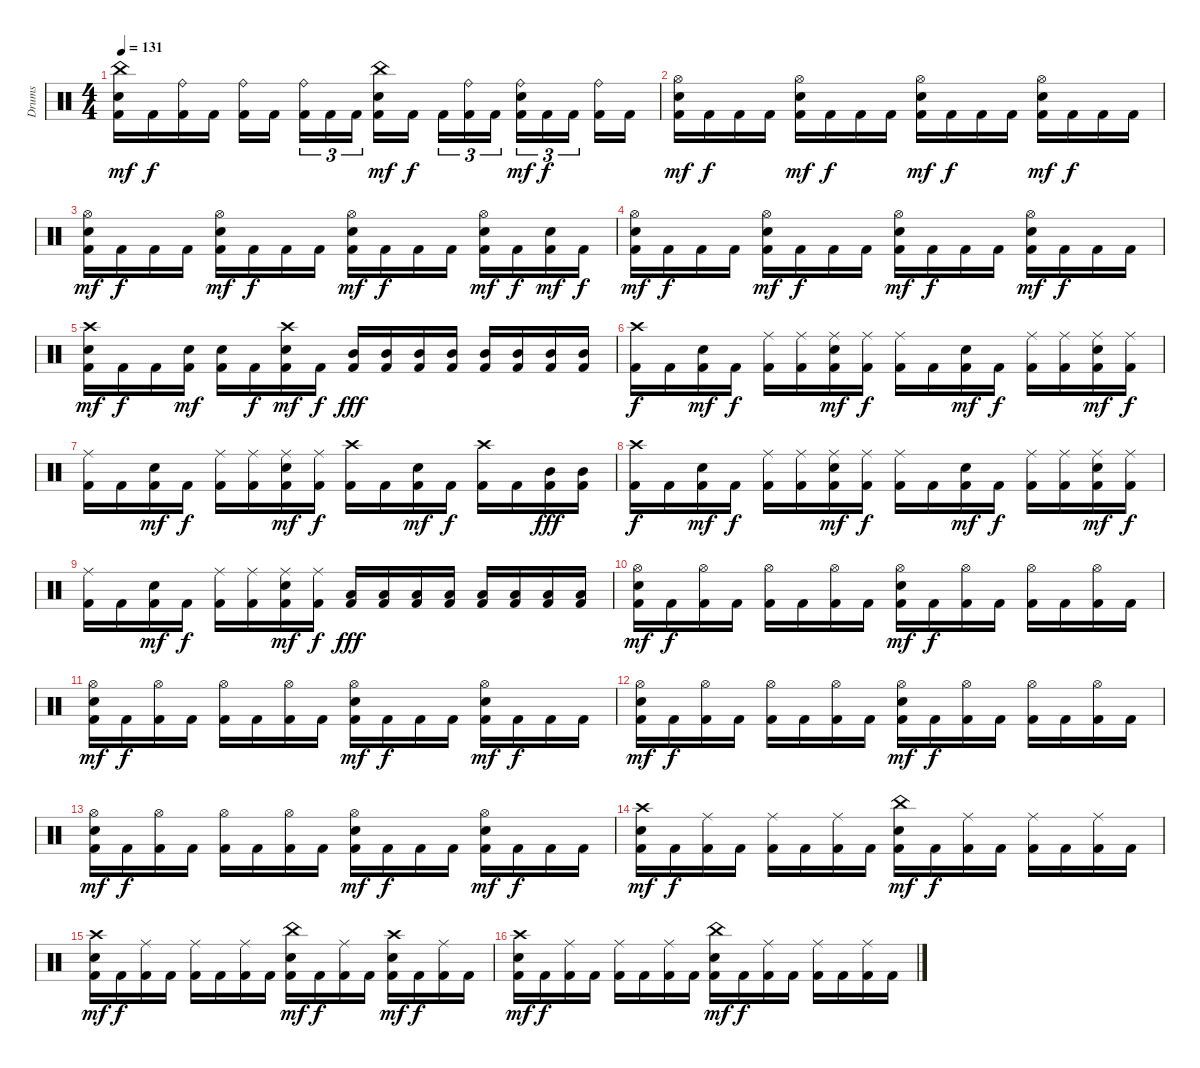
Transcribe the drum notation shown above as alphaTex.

\track ("Drums" "Drums") {instrument percussion}
\staff {score}
\articulation defaults
\ts (4 4)
\tempo 131
\clef neutral
\ks c
("China (hit)" "Snare (hit) 2" "Kick (hit) 2").16{dy mf} "Kick (hit) 2".16{dy f} ("Ride (bell)" "Kick (hit) 2").16 "Kick (hit) 2".16 ("Ride (bell)" "Kick (hit) 2").16 "Kick (hit) 2".16 ("Ride (bell)" "Kick (hit) 2").16{tu (3 2)} "Kick (hit) 2".16{tu (3 2)} "Kick (hit) 2".16{tu (3 2)} ("China (hit)" "Snare (hit) 2" "Kick (hit) 2").16{dy mf} "Kick (hit) 2".16{dy f} "Kick (hit) 2".16{tu (3 2)} ("Ride (bell)" "Kick (hit) 2").16{tu (3 2)} "Kick (hit) 2".16{tu (3 2)} ("Ride (bell)" "Snare (hit) 2" "Kick (hit) 2").16{tu (3 2) dy mf} "Kick (hit) 2".16{tu (3 2) dy f} "Kick (hit) 2".16{tu (3 2)} ("Ride (bell)" "Kick (hit) 2").16 "Kick (hit) 2".16 |
\section ("" "")
("Hi-Hat (open)" "Snare (hit) 2" "Kick (hit) 2").16{dy mf} "Kick (hit) 2".16{dy f} "Kick (hit) 2".16 "Kick (hit) 2".16 ("Hi-Hat (open)" "Snare (hit) 2" "Kick (hit) 2").16{dy mf} "Kick (hit) 2".16{dy f} "Kick (hit) 2".16 "Kick (hit) 2".16 ("Hi-Hat (open)" "Snare (hit) 2" "Kick (hit) 2").16{dy mf} "Kick (hit) 2".16{dy f} "Kick (hit) 2".16 "Kick (hit) 2".16 ("Hi-Hat (open)" "Snare (hit) 2" "Kick (hit) 2").16{dy mf} "Kick (hit) 2".16{dy f} "Kick (hit) 2".16 "Kick (hit) 2".16 |
("Hi-Hat (open)" "Snare (hit) 2" "Kick (hit) 2").16{dy mf} "Kick (hit) 2".16{dy f} "Kick (hit) 2".16 "Kick (hit) 2".16 ("Hi-Hat (open)" "Snare (hit) 2" "Kick (hit) 2").16{dy mf} "Kick (hit) 2".16{dy f} "Kick (hit) 2".16 "Kick (hit) 2".16 ("Hi-Hat (open)" "Snare (hit) 2" "Kick (hit) 2").16{dy mf} "Kick (hit) 2".16{dy f} "Kick (hit) 2".16 "Kick (hit) 2".16 ("Hi-Hat (open)" "Snare (hit) 2" "Kick (hit) 2").16{dy mf} "Kick (hit) 2".16{dy f} ("Snare (hit) 2" "Kick (hit) 2").16{dy mf} "Kick (hit) 2".16{dy f} |
("Hi-Hat (open)" "Snare (hit) 2" "Kick (hit) 2").16{dy mf} "Kick (hit) 2".16{dy f} "Kick (hit) 2".16 "Kick (hit) 2".16 ("Hi-Hat (open)" "Snare (hit) 2" "Kick (hit) 2").16{dy mf} "Kick (hit) 2".16{dy f} "Kick (hit) 2".16 "Kick (hit) 2".16 ("Hi-Hat (open)" "Snare (hit) 2" "Kick (hit) 2").16{dy mf} "Kick (hit) 2".16{dy f} "Kick (hit) 2".16 "Kick (hit) 2".16 ("Hi-Hat (open)" "Snare (hit) 2" "Kick (hit) 2").16{dy mf} "Kick (hit) 2".16{dy f} "Kick (hit) 2".16 "Kick (hit) 2".16 |
("Crash high (hit)" "Snare (hit) 2" "Kick (hit) 2").16{dy mf} "Kick (hit) 2".16{dy f} "Kick (hit) 2".16 ("Snare (hit) 2" "Kick (hit) 2").16{dy mf} ("Snare (hit) 2" "Kick (hit) 2").16 "Kick (hit) 2".16{dy f} ("Crash high (hit)" "Snare (hit) 2" "Kick (hit) 2").16{dy mf} "Kick (hit) 2".16{dy f} ("Mid Tom (hit)" "Kick (hit) 2").16{dy fff} ("Mid Tom (hit)" "Kick (hit) 2").16 ("Mid Tom (hit)" "Kick (hit) 2").16 ("Mid Tom (hit)" "Kick (hit) 2").16 ("Mid Tom (hit)" "Kick (hit) 2").16 ("Mid Tom (hit)" "Kick (hit) 2").16 ("Mid Tom (hit)" "Kick (hit) 2").16 ("Mid Tom (hit)" "Kick (hit) 2").16 |
("Crash high (hit)" "Kick (hit) 2").16{dy f} "Kick (hit) 2".16 ("Snare (hit) 2" "Kick (hit) 2").16{dy mf} "Kick (hit) 2".16{dy f} ("Ride (middle)" "Kick (hit) 2").16 ("Ride (middle)" "Kick (hit) 2").16 ("Ride (middle)" "Snare (hit) 2" "Kick (hit) 2").16{dy mf} ("Ride (middle)" "Kick (hit) 2").16{dy f} ("Ride (middle)" "Kick (hit) 2").16 "Kick (hit) 2".16 ("Snare (hit) 2" "Kick (hit) 2").16{dy mf} "Kick (hit) 2".16{dy f} ("Ride (middle)" "Kick (hit) 2").16 ("Ride (middle)" "Kick (hit) 2").16 ("Ride (middle)" "Snare (hit) 2" "Kick (hit) 2").16{dy mf} ("Ride (middle)" "Kick (hit) 2").16{dy f} |
("Ride (middle)" "Kick (hit) 2").16 "Kick (hit) 2".16 ("Snare (hit) 2" "Kick (hit) 2").16{dy mf} "Kick (hit) 2".16{dy f} ("Ride (middle)" "Kick (hit) 2").16 ("Ride (middle)" "Kick (hit) 2").16 ("Ride (middle)" "Snare (hit) 2" "Kick (hit) 2").16{dy mf} ("Ride (middle)" "Kick (hit) 2").16{dy f} ("Crash high (hit)" "Kick (hit) 2").16 "Kick (hit) 2".16 ("Snare (hit) 2" "Kick (hit) 2").16{dy mf} "Kick (hit) 2".16{dy f} ("Crash high (hit)" "Kick (hit) 2").16 "Kick (hit) 2".16 ("Mid Tom (hit)" "Kick (hit) 2").16{dy fff} ("Mid Tom (hit)" "Kick (hit) 2").16 |
("Crash high (hit)" "Kick (hit) 2").16{dy f} "Kick (hit) 2".16 ("Snare (hit) 2" "Kick (hit) 2").16{dy mf} "Kick (hit) 2".16{dy f} ("Ride (middle)" "Kick (hit) 2").16 ("Ride (middle)" "Kick (hit) 2").16 ("Ride (middle)" "Snare (hit) 2" "Kick (hit) 2").16{dy mf} ("Ride (middle)" "Kick (hit) 2").16{dy f} ("Ride (middle)" "Kick (hit) 2").16 "Kick (hit) 2".16 ("Snare (hit) 2" "Kick (hit) 2").16{dy mf} "Kick (hit) 2".16{dy f} ("Ride (middle)" "Kick (hit) 2").16 ("Ride (middle)" "Kick (hit) 2").16 ("Ride (middle)" "Snare (hit) 2" "Kick (hit) 2").16{dy mf} ("Ride (middle)" "Kick (hit) 2").16{dy f} |
("Ride (middle)" "Kick (hit) 2").16 "Kick (hit) 2".16 ("Snare (hit) 2" "Kick (hit) 2").16{dy mf} "Kick (hit) 2".16{dy f} ("Ride (middle)" "Kick (hit) 2").16 ("Ride (middle)" "Kick (hit) 2").16 ("Ride (middle)" "Snare (hit) 2" "Kick (hit) 2").16{dy mf} ("Ride (middle)" "Kick (hit) 2").16{dy f} ("Low Tom (hit)" "Kick (hit) 2").16{dy fff} ("Low Tom (hit)" "Kick (hit) 2").16 ("Low Tom (hit)" "Kick (hit) 2").16 ("Low Tom (hit)" "Kick (hit) 2").16 ("Low Tom (hit)" "Kick (hit) 2").16 ("Low Tom (hit)" "Kick (hit) 2").16 ("Low Tom (hit)" "Kick (hit) 2").16 ("Low Tom (hit)" "Kick (hit) 2").16 |
\section ("" "")
("Hi-Hat (open)" "Snare (hit) 2" "Kick (hit) 2").16{dy mf} "Kick (hit) 2".16{dy f} ("Hi-Hat (open)" "Kick (hit) 2").16 "Kick (hit) 2".16 ("Hi-Hat (open)" "Kick (hit) 2").16 "Kick (hit) 2".16 ("Hi-Hat (open)" "Kick (hit) 2").16 "Kick (hit) 2".16 ("Hi-Hat (open)" "Snare (hit) 2" "Kick (hit) 2").16{dy mf} "Kick (hit) 2".16{dy f} ("Hi-Hat (open)" "Kick (hit) 2").16 "Kick (hit) 2".16 ("Hi-Hat (open)" "Kick (hit) 2").16 "Kick (hit) 2".16 ("Hi-Hat (open)" "Kick (hit) 2").16 "Kick (hit) 2".16 |
("Hi-Hat (open)" "Snare (hit) 2" "Kick (hit) 2").16{dy mf} "Kick (hit) 2".16{dy f} ("Hi-Hat (open)" "Kick (hit) 2").16 "Kick (hit) 2".16 ("Hi-Hat (open)" "Kick (hit) 2").16 "Kick (hit) 2".16 ("Hi-Hat (open)" "Kick (hit) 2").16 "Kick (hit) 2".16 ("Hi-Hat (open)" "Snare (hit) 2" "Kick (hit) 2").16{dy mf} "Kick (hit) 2".16{dy f} "Kick (hit) 2".16 "Kick (hit) 2".16 ("Hi-Hat (open)" "Snare (hit) 2" "Kick (hit) 2").16{dy mf} "Kick (hit) 2".16{dy f} "Kick (hit) 2".16 "Kick (hit) 2".16 |
("Hi-Hat (open)" "Snare (hit) 2" "Kick (hit) 2").16{dy mf} "Kick (hit) 2".16{dy f} ("Hi-Hat (open)" "Kick (hit) 2").16 "Kick (hit) 2".16 ("Hi-Hat (open)" "Kick (hit) 2").16 "Kick (hit) 2".16 ("Hi-Hat (open)" "Kick (hit) 2").16 "Kick (hit) 2".16 ("Hi-Hat (open)" "Snare (hit) 2" "Kick (hit) 2").16{dy mf} "Kick (hit) 2".16{dy f} ("Hi-Hat (open)" "Kick (hit) 2").16 "Kick (hit) 2".16 ("Hi-Hat (open)" "Kick (hit) 2").16 "Kick (hit) 2".16 ("Hi-Hat (open)" "Kick (hit) 2").16 "Kick (hit) 2".16 |
("Hi-Hat (open)" "Snare (hit) 2" "Kick (hit) 2").16{dy mf} "Kick (hit) 2".16{dy f} ("Hi-Hat (open)" "Kick (hit) 2").16 "Kick (hit) 2".16 ("Hi-Hat (open)" "Kick (hit) 2").16 "Kick (hit) 2".16 ("Hi-Hat (open)" "Kick (hit) 2").16 "Kick (hit) 2".16 ("Hi-Hat (open)" "Snare (hit) 2" "Kick (hit) 2").16{dy mf} "Kick (hit) 2".16{dy f} "Kick (hit) 2".16 "Kick (hit) 2".16 ("Hi-Hat (open)" "Snare (hit) 2" "Kick (hit) 2").16{dy mf} "Kick (hit) 2".16{dy f} "Kick (hit) 2".16 "Kick (hit) 2".16 |
\section ("" "")
("Crash high (hit)" "Snare (hit) 2" "Kick (hit) 2").16{dy mf} "Kick (hit) 2".16{dy f} ("Ride (middle)" "Kick (hit) 2").16 "Kick (hit) 2".16 ("Ride (middle)" "Kick (hit) 2").16 "Kick (hit) 2".16 ("Ride (middle)" "Kick (hit) 2").16 "Kick (hit) 2".16 ("China (hit)" "Snare (hit) 2" "Kick (hit) 2").16{dy mf} "Kick (hit) 2".16{dy f} ("Ride (middle)" "Kick (hit) 2").16 "Kick (hit) 2".16 ("Ride (middle)" "Kick (hit) 2").16 "Kick (hit) 2".16 ("Ride (middle)" "Kick (hit) 2").16 "Kick (hit) 2".16 |
("Crash high (hit)" "Snare (hit) 2" "Kick (hit) 2").16{dy mf} "Kick (hit) 2".16{dy f} ("Ride (middle)" "Kick (hit) 2").16 "Kick (hit) 2".16 ("Ride (middle)" "Kick (hit) 2").16 "Kick (hit) 2".16 ("Ride (middle)" "Kick (hit) 2").16 "Kick (hit) 2".16 ("China (hit)" "Snare (hit) 2" "Kick (hit) 2").16{dy mf} "Kick (hit) 2".16{dy f} ("Ride (middle)" "Kick (hit) 2").16 "Kick (hit) 2".16 ("Crash high (hit)" "Snare (hit) 2" "Kick (hit) 2").16{dy mf} "Kick (hit) 2".16{dy f} ("Ride (middle)" "Kick (hit) 2").16 "Kick (hit) 2".16 |
("Crash high (hit)" "Snare (hit) 2" "Kick (hit) 2").16{dy mf} "Kick (hit) 2".16{dy f} ("Ride (middle)" "Kick (hit) 2").16 "Kick (hit) 2".16 ("Ride (middle)" "Kick (hit) 2").16 "Kick (hit) 2".16 ("Ride (middle)" "Kick (hit) 2").16 "Kick (hit) 2".16 ("China (hit)" "Snare (hit) 2" "Kick (hit) 2").16{dy mf} "Kick (hit) 2".16{dy f} ("Ride (middle)" "Kick (hit) 2").16 "Kick (hit) 2".16 ("Ride (middle)" "Kick (hit) 2").16 "Kick (hit) 2".16 ("Ride (middle)" "Kick (hit) 2").16 "Kick (hit) 2".16
